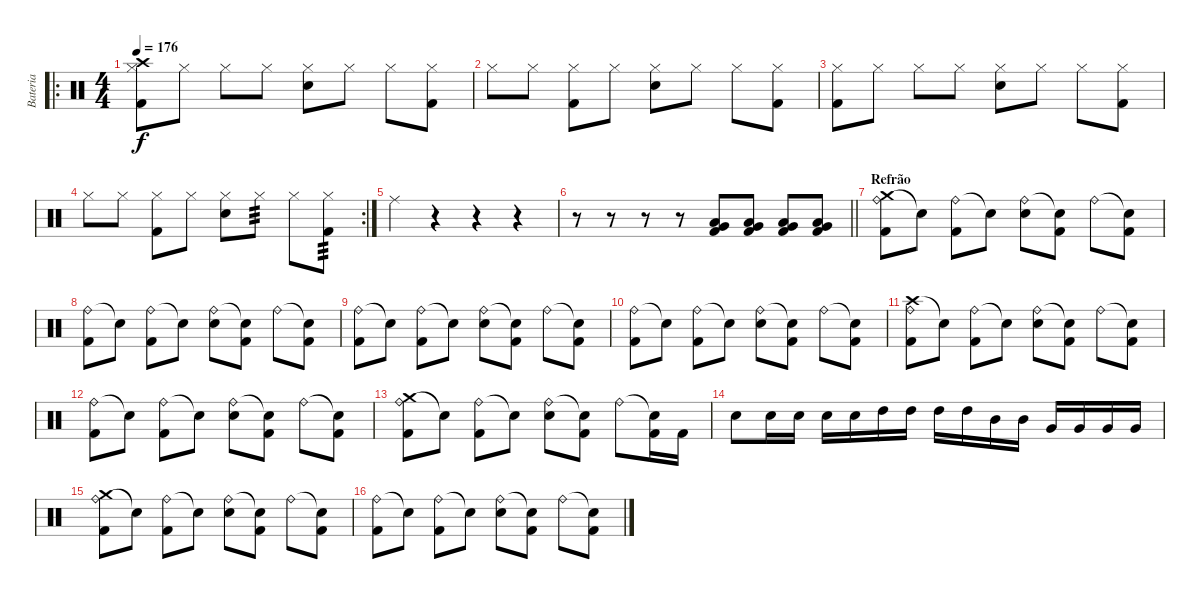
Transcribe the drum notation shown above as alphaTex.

\track ("Bateria" "Bateria") {instrument percussion}
\staff {score}
\articulation defaults
\ro
\ts (4 4)
\tempo 176
\clef neutral
\ks c
("Crash high (hit)" "Hi-Hat (closed)" "Kick (hit) 2").8{dy f} "Hi-Hat (closed)".8 "Hi-Hat (closed)".8 "Hi-Hat (closed)".8 ("Hi-Hat (closed)" "Electric Snare (hit)").8 "Hi-Hat (closed)".8 "Hi-Hat (closed)".8 ("Hi-Hat (closed)" "Kick (hit) 2").8 |
"Hi-Hat (closed)".8 "Hi-Hat (closed)".8 ("Hi-Hat (closed)" "Kick (hit) 2").8 "Hi-Hat (closed)".8 ("Hi-Hat (closed)" "Electric Snare (hit)").8 "Hi-Hat (closed)".8 "Hi-Hat (closed)".8 ("Hi-Hat (closed)" "Kick (hit) 2").8 |
("Hi-Hat (closed)" "Kick (hit) 2").8 "Hi-Hat (closed)".8 "Hi-Hat (closed)".8 "Hi-Hat (closed)".8 ("Hi-Hat (closed)" "Electric Snare (hit)").8 "Hi-Hat (closed)".8 "Hi-Hat (closed)".8 ("Hi-Hat (closed)" "Kick (hit) 2").8 |
\rc 2 "Hi-Hat (closed)".8 "Hi-Hat (closed)".8
("Hi-Hat (closed)" "Kick (hit) 2").8 "Hi-Hat (closed)".8 ("Hi-Hat (closed)" "Electric Snare (hit)").8 "Hi-Hat (closed)".8{tp 3} "Hi-Hat (closed)".8 ("Hi-Hat (closed)" "Kick (hit) 2").8{tp 3} |
"Ride (middle)".4 r.4 r.4 r.4 |
\barLineRight lightlight
r.8 r.8 r.8 r.8 ("Low Floor Tom (hit)" "Very Low Tom (hit)" "Kick (hit) 2").8 ("Low Floor Tom (hit)" "Very Low Tom (hit)" "Kick (hit) 2").8 ("Low Floor Tom (hit)" "Very Low Tom (hit)" "Kick (hit) 2").8 ("Low Floor Tom (hit)" "Very Low Tom (hit)" "Kick (hit) 2").8 |
\section ("" "Refrão")
("Crash medium (hit)" "Ride (bell)" "Kick (hit) 2").8 "Snare (hit)"{t}.8 ("Ride (bell)" "Kick (hit) 2").8 "Snare (hit)"{t}.8 ("Ride (bell)" "Electric Snare (hit)").8 ("Snare (hit)"{t} "Kick (hit) 2").8 "Ride (bell)".8 ("Snare (hit)"{t} "Kick (hit) 2").8 |
("Ride (bell)" "Kick (hit) 2").8 "Snare (hit)"{t}.8 ("Ride (bell)" "Kick (hit) 2").8 "Snare (hit)"{t}.8 ("Ride (bell)" "Electric Snare (hit)").8 ("Snare (hit)"{t} "Kick (hit) 2").8 "Ride (bell)".8 ("Snare (hit)"{t} "Kick (hit) 2").8 |
("Ride (bell)" "Kick (hit) 2").8 "Snare (hit)"{t}.8 ("Ride (bell)" "Kick (hit) 2").8 "Snare (hit)"{t}.8 ("Ride (bell)" "Electric Snare (hit)").8 ("Snare (hit)"{t} "Kick (hit) 2").8 "Ride (bell)".8 ("Snare (hit)"{t} "Kick (hit) 2").8 |
("Ride (bell)" "Kick (hit) 2").8 "Snare (hit)"{t}.8 ("Ride (bell)" "Kick (hit) 2").8 "Snare (hit)"{t}.8 ("Ride (bell)" "Electric Snare (hit)").8 ("Snare (hit)"{t} "Kick (hit) 2").8 "Ride (bell)".8 ("Snare (hit)"{t} "Kick (hit) 2").8 |
("Crash high (hit)" "Ride (bell)" "Kick (hit) 2").8 "Snare (hit)"{t}.8 ("Ride (bell)" "Kick (hit) 2").8 "Snare (hit)"{t}.8 ("Ride (bell)" "Electric Snare (hit)").8 ("Snare (hit)"{t} "Kick (hit) 2").8 "Ride (bell)".8 ("Snare (hit)"{t} "Kick (hit) 2").8 |
("Ride (bell)" "Kick (hit) 2").8 "Snare (hit)"{t}.8 ("Ride (bell)" "Kick (hit) 2").8 "Snare (hit)"{t}.8 ("Ride (bell)" "Electric Snare (hit)").8 ("Snare (hit)"{t} "Kick (hit) 2").8 "Ride (bell)".8 ("Snare (hit)"{t} "Kick (hit) 2").8 |
("Crash medium (hit)" "Ride (bell)" "Kick (hit) 2").8 "Snare (hit)"{t}.8 ("Ride (bell)" "Kick (hit) 2").8 "Snare (hit)"{t}.8 ("Ride (bell)" "Electric Snare (hit)").8 ("Snare (hit)"{t} "Kick (hit) 2").8 "Ride (bell)".8 ("Snare (hit)"{t} "Kick (hit) 2").16 "Kick (hit) 2".16 |
"Electric Snare (hit)".8 "Electric Snare (hit)".16 "Electric Snare (hit)".16 "Electric Snare (hit)".16 "Electric Snare (hit)".16 "High Tom (hit)".16 "High Tom (hit)".16 "High Tom (hit)".16 "High Tom (hit)".16 "Mid Tom (hit)".16 "Mid Tom (hit)".16 "Very Low Tom (hit)".16 "Very Low Tom (hit)".16 "Very Low Tom (hit)".16 "Very Low Tom (hit)".16 |
("Crash medium (hit)" "Ride (bell)" "Kick (hit) 2").8 "Snare (hit)"{t}.8 ("Ride (bell)" "Kick (hit) 2").8 "Snare (hit)"{t}.8 ("Ride (bell)" "Electric Snare (hit)").8 ("Snare (hit)"{t} "Kick (hit) 2").8 "Ride (bell)".8 ("Snare (hit)"{t} "Kick (hit) 2").8 |
("Ride (bell)" "Kick (hit) 2").8 "Snare (hit)"{t}.8 ("Ride (bell)" "Kick (hit) 2").8 "Snare (hit)"{t}.8 ("Ride (bell)" "Electric Snare (hit)").8 ("Snare (hit)"{t} "Kick (hit) 2").8 "Ride (bell)".8 ("Snare (hit)"{t} "Kick (hit) 2").8
